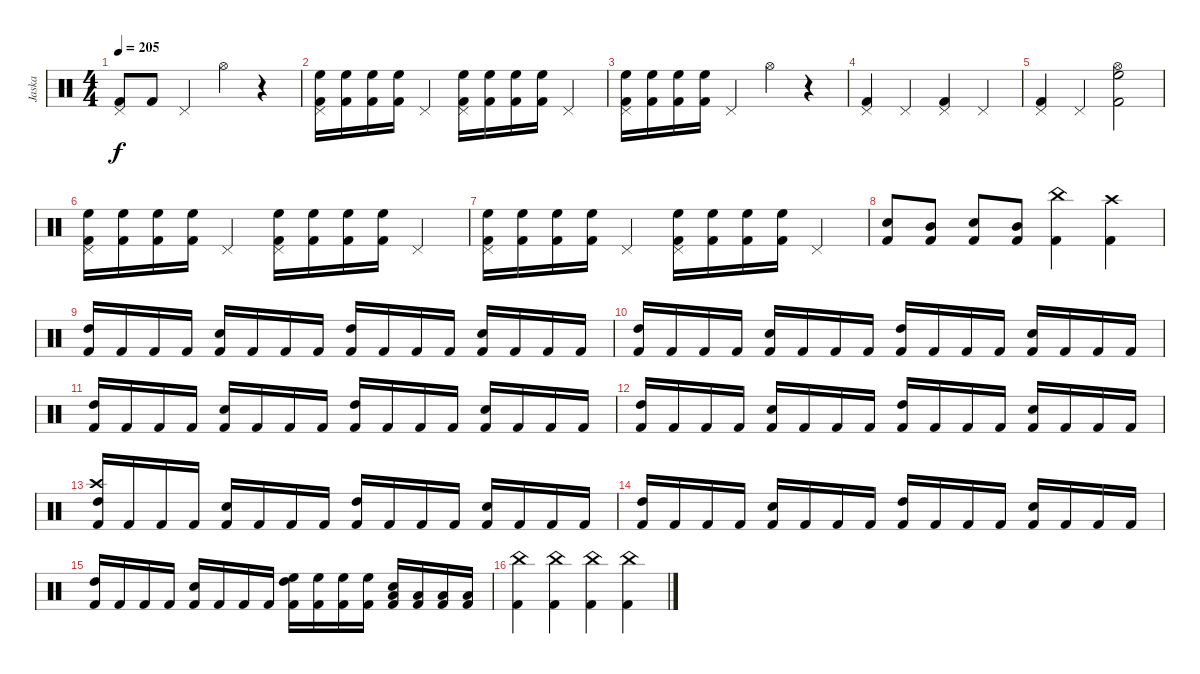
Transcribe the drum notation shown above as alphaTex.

\track ("Jaska" "Jaska") {instrument percussion}
\staff {score}
\articulation defaults
\ts (4 4)
\tempo 205
\clef neutral
\ks c
("Kick (hit) 2" "Pedal Hi-Hat (hit)").8{dy f} "Kick (hit) 2".8 "Pedal Hi-Hat (hit)".4 "Hi-Hat (open)".4 r.4 |
("Kick (hit) 2" "High Floor Tom (hit)" "Pedal Hi-Hat (hit)").16 ("Kick (hit) 2" "High Floor Tom (hit)").16 ("Kick (hit) 2" "High Floor Tom (hit)").16 ("Kick (hit) 2" "High Floor Tom (hit)").16 "Pedal Hi-Hat (hit)".4 ("Kick (hit) 2" "High Floor Tom (hit)" "Pedal Hi-Hat (hit)").16 ("Kick (hit) 2" "High Floor Tom (hit)").16 ("Kick (hit) 2" "High Floor Tom (hit)").16 ("Kick (hit) 2" "High Floor Tom (hit)").16 "Pedal Hi-Hat (hit)".4 |
("Kick (hit) 2" "High Floor Tom (hit)" "Pedal Hi-Hat (hit)").16 ("Kick (hit) 2" "High Floor Tom (hit)").16 ("Kick (hit) 2" "High Floor Tom (hit)").16 ("Kick (hit) 2" "High Floor Tom (hit)").16 "Pedal Hi-Hat (hit)".4 "Hi-Hat (open)".4 r.4 |
("Kick (hit) 2" "Pedal Hi-Hat (hit)").4 "Pedal Hi-Hat (hit)".4 ("Kick (hit) 2" "Pedal Hi-Hat (hit)").4 "Pedal Hi-Hat (hit)".4 |
("Kick (hit) 2" "Pedal Hi-Hat (hit)").4 "Pedal Hi-Hat (hit)".4 ("Kick (hit) 2" "High Floor Tom (hit)" "Hi-Hat (open)").2 |
("Kick (hit) 2" "High Floor Tom (hit)" "Pedal Hi-Hat (hit)").16 ("Kick (hit) 2" "High Floor Tom (hit)").16 ("Kick (hit) 2" "High Floor Tom (hit)").16 ("Kick (hit) 2" "High Floor Tom (hit)").16 "Pedal Hi-Hat (hit)".4 ("Kick (hit) 2" "High Floor Tom (hit)" "Pedal Hi-Hat (hit)").16 ("Kick (hit) 2" "High Floor Tom (hit)").16 ("Kick (hit) 2" "High Floor Tom (hit)").16 ("Kick (hit) 2" "High Floor Tom (hit)").16 "Pedal Hi-Hat (hit)".4 |
("Kick (hit) 2" "High Floor Tom (hit)" "Pedal Hi-Hat (hit)").16 ("Kick (hit) 2" "High Floor Tom (hit)").16 ("Kick (hit) 2" "High Floor Tom (hit)").16 ("Kick (hit) 2" "High Floor Tom (hit)").16 "Pedal Hi-Hat (hit)".4 ("Kick (hit) 2" "High Floor Tom (hit)" "Pedal Hi-Hat (hit)").16 ("Kick (hit) 2" "High Floor Tom (hit)").16 ("Kick (hit) 2" "High Floor Tom (hit)").16 ("Kick (hit) 2" "High Floor Tom (hit)").16 "Pedal Hi-Hat (hit)".4 |
("Kick (hit) 2" "Electric Snare (hit)").8 ("Kick (hit) 2" "Mid Tom (hit)").8 ("Kick (hit) 2" "Electric Snare (hit)").8 ("Kick (hit) 2" "Mid Tom (hit)").8 ("Kick (hit) 2" "China (hit)").4 ("Kick (hit) 2" "Crash high (hit)").4 |
("Kick (hit) 2" "High Tom (hit)").16 "Kick (hit) 2".16 "Kick (hit) 2".16 "Kick (hit) 2".16 ("Kick (hit) 2" "Snare (hit) 2").16 "Kick (hit) 2".16 "Kick (hit) 2".16 "Kick (hit) 2".16 ("Kick (hit) 2" "High Tom (hit)").16 "Kick (hit) 2".16 "Kick (hit) 2".16 "Kick (hit) 2".16 ("Kick (hit) 2" "Snare (hit) 2").16 "Kick (hit) 2".16 "Kick (hit) 2".16 "Kick (hit) 2".16 |
("Kick (hit) 2" "High Tom (hit)").16 "Kick (hit) 2".16 "Kick (hit) 2".16 "Kick (hit) 2".16 ("Kick (hit) 2" "Snare (hit) 2").16 "Kick (hit) 2".16 "Kick (hit) 2".16 "Kick (hit) 2".16 ("Kick (hit) 2" "High Tom (hit)").16 "Kick (hit) 2".16 "Kick (hit) 2".16 "Kick (hit) 2".16 ("Kick (hit) 2" "Snare (hit) 2").16 "Kick (hit) 2".16 "Kick (hit) 2".16 "Kick (hit) 2".16 |
("Kick (hit) 2" "High Tom (hit)").16 "Kick (hit) 2".16 "Kick (hit) 2".16 "Kick (hit) 2".16 ("Kick (hit) 2" "Snare (hit) 2").16 "Kick (hit) 2".16 "Kick (hit) 2".16 "Kick (hit) 2".16 ("Kick (hit) 2" "High Tom (hit)").16 "Kick (hit) 2".16 "Kick (hit) 2".16 "Kick (hit) 2".16 ("Kick (hit) 2" "Snare (hit) 2").16 "Kick (hit) 2".16 "Kick (hit) 2".16 "Kick (hit) 2".16 |
("Kick (hit) 2" "High Tom (hit)").16 "Kick (hit) 2".16 "Kick (hit) 2".16 "Kick (hit) 2".16 ("Kick (hit) 2" "Snare (hit) 2").16 "Kick (hit) 2".16 "Kick (hit) 2".16 "Kick (hit) 2".16 ("Kick (hit) 2" "High Tom (hit)").16 "Kick (hit) 2".16 "Kick (hit) 2".16 "Kick (hit) 2".16 ("Kick (hit) 2" "Snare (hit) 2").16 "Kick (hit) 2".16 "Kick (hit) 2".16 "Kick (hit) 2".16 |
("Kick (hit) 2" "High Tom (hit)" "Crash high (hit)").16 "Kick (hit) 2".16 "Kick (hit) 2".16 "Kick (hit) 2".16 ("Kick (hit) 2" "Snare (hit) 2").16 "Kick (hit) 2".16 "Kick (hit) 2".16 "Kick (hit) 2".16 ("Kick (hit) 2" "High Tom (hit)").16 "Kick (hit) 2".16 "Kick (hit) 2".16 "Kick (hit) 2".16 ("Kick (hit) 2" "Snare (hit) 2").16 "Kick (hit) 2".16 "Kick (hit) 2".16 "Kick (hit) 2".16 |
("Kick (hit) 2" "High Tom (hit)").16 "Kick (hit) 2".16 "Kick (hit) 2".16 "Kick (hit) 2".16 ("Kick (hit) 2" "Snare (hit) 2").16 "Kick (hit) 2".16 "Kick (hit) 2".16 "Kick (hit) 2".16 ("Kick (hit) 2" "High Tom (hit)").16 "Kick (hit) 2".16 "Kick (hit) 2".16 "Kick (hit) 2".16 ("Kick (hit) 2" "Snare (hit) 2").16 "Kick (hit) 2".16 "Kick (hit) 2".16 "Kick (hit) 2".16 |
("Kick (hit) 2" "High Tom (hit)").16 "Kick (hit) 2".16 "Kick (hit) 2".16 "Kick (hit) 2".16 ("Kick (hit) 2" "Snare (hit) 2").16 "Kick (hit) 2".16 "Kick (hit) 2".16 "Kick (hit) 2".16 ("Kick (hit) 2" "High Tom (hit)" "High Floor Tom (hit)").16 ("Kick (hit) 2" "High Floor Tom (hit)").16 ("Kick (hit) 2" "High Floor Tom (hit)").16 ("Kick (hit) 2" "High Floor Tom (hit)").16 ("Kick (hit) 2" "Snare (hit) 2" "Low Tom (hit)").16 ("Kick (hit) 2" "Low Tom (hit)").16 ("Kick (hit) 2" "Low Tom (hit)").16 ("Kick (hit) 2" "Low Tom (hit)").16 |
("Kick (hit) 2" "China (hit)").4 ("Kick (hit) 2" "China (hit)").4 ("Kick (hit) 2" "China (hit)").4 ("Kick (hit) 2" "China (hit)").4
